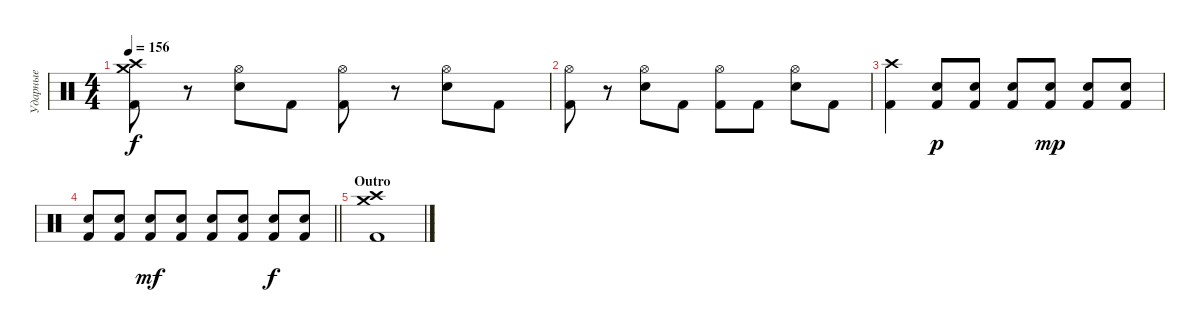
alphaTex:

\track ("Ударные" "Ударные") {instrument percussion}
\staff {score}
\articulation defaults
\ts (4 4)
\tempo 156
\clef neutral
\ks c
("Crash high (hit)" "Crash medium (hit)" "Kick (hit) 2").8{dy f} r.8 ("Hi-Hat (open)" "Electric Snare (hit)").8 "Kick (hit) 2".8 ("Hi-Hat (open)" "Kick (hit) 2").8 r.8 ("Hi-Hat (open)" "Electric Snare (hit)").8 "Kick (hit) 2".8 |
("Hi-Hat (open)" "Kick (hit) 2").8 r.8 ("Hi-Hat (open)" "Electric Snare (hit)").8 "Kick (hit) 2".8 ("Hi-Hat (open)" "Kick (hit) 2").8 "Kick (hit) 2".8 ("Hi-Hat (open)" "Electric Snare (hit)").8 "Kick (hit) 2".8 |
("Crash high (hit)" "Kick (hit) 2").4 ("Electric Snare (hit)" "Kick (hit) 2").8{dy p} ("Electric Snare (hit)" "Kick (hit) 2").8 ("Electric Snare (hit)" "Kick (hit) 2").8 ("Electric Snare (hit)" "Kick (hit) 2").8{dy mp} ("Electric Snare (hit)" "Kick (hit) 2").8 ("Electric Snare (hit)" "Kick (hit) 2").8 |
\barLineRight lightlight
("Electric Snare (hit)" "Kick (hit) 2").8 ("Electric Snare (hit)" "Kick (hit) 2").8 ("Electric Snare (hit)" "Kick (hit) 2").8{dy mf} ("Electric Snare (hit)" "Kick (hit) 2").8 ("Electric Snare (hit)" "Kick (hit) 2").8 ("Electric Snare (hit)" "Kick (hit) 2").8 ("Electric Snare (hit)" "Kick (hit) 2").8{dy f} ("Electric Snare (hit)" "Kick (hit) 2").8 |
\section ("" "Outro")
("Crash high (hit)" "Crash medium (hit)" "Kick (hit) 2").1
